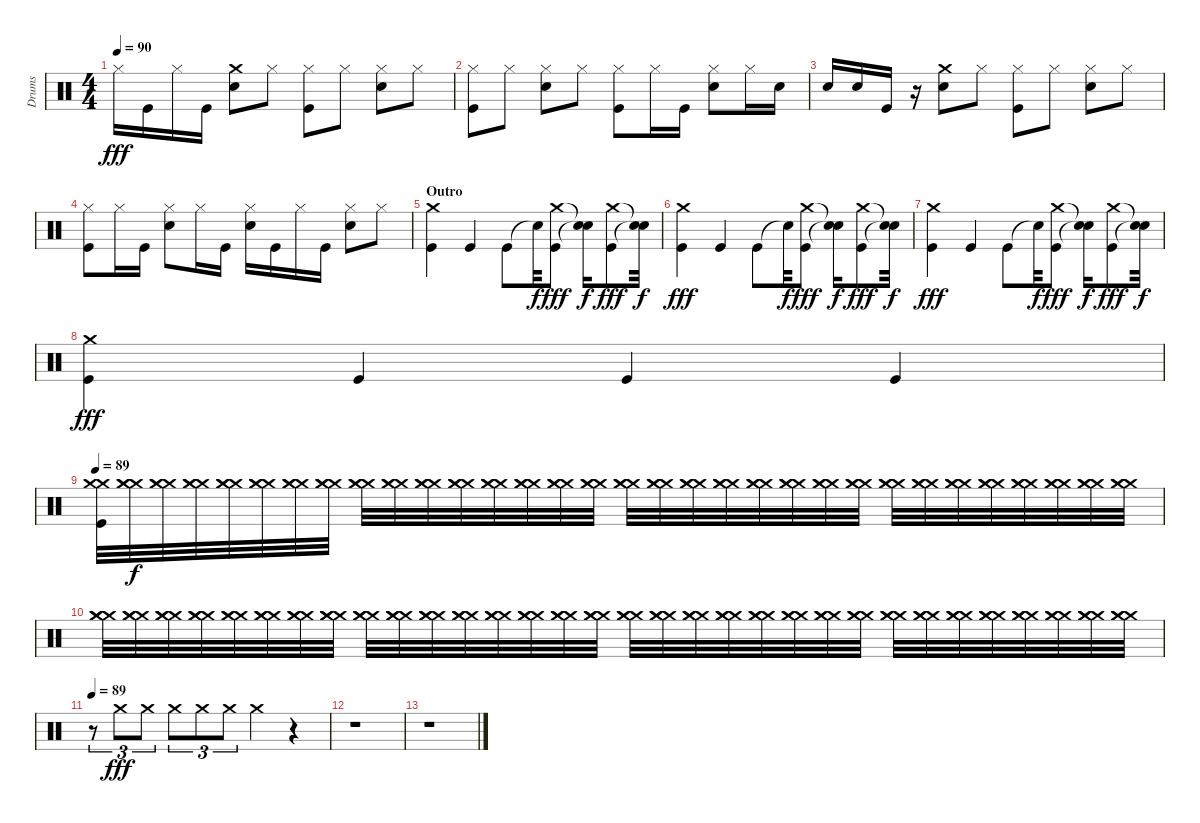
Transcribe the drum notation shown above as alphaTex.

\track ("Drums" "Drums") {instrument percussion}
\staff {score}
\articulation defaults
\ts (4 4)
\tempo 90
\clef neutral
\ks c "Hi-Hat (closed)".16{dy fff} "Kick (hit)".16 "Hi-Hat (closed)".16 "Kick (hit)".16
("Crash medium (hit)" "Snare (hit) 2").8 "Hi-Hat (closed)".8 ("Kick (hit)" "Hi-Hat (closed)").8 "Hi-Hat (closed)".8 ("Snare (hit) 2" "Hi-Hat (closed)").8 "Hi-Hat (closed)".8 |
("Hi-Hat (closed)" "Kick (hit)").8 "Hi-Hat (closed)".8 ("Snare (hit) 2" "Hi-Hat (closed)").8 "Hi-Hat (closed)".8 ("Hi-Hat (closed)" "Kick (hit)").8 "Hi-Hat (closed)".16 "Kick (hit)".16 ("Snare (hit) 2" "Hi-Hat (closed)").8 "Hi-Hat (closed)".16 "Snare (hit) 2".16 |
"Snare (hit) 2".16 "Snare (hit) 2".16 "Kick (hit)".16 r.16 ("Crash medium (hit)" "Snare (hit) 2").8 "Hi-Hat (closed)".8 ("Kick (hit)" "Hi-Hat (closed)").8 "Hi-Hat (closed)".8 ("Snare (hit) 2" "Hi-Hat (closed)").8 "Hi-Hat (closed)".8 |
("Kick (hit)" "Hi-Hat (closed)").8 "Hi-Hat (closed)".16 "Kick (hit)".16 ("Snare (hit) 2" "Hi-Hat (closed)").8 "Hi-Hat (closed)".16 "Kick (hit)".16 ("Snare (hit) 2" "Hi-Hat (closed)").16 "Kick (hit)".16 "Hi-Hat (closed)".16 "Kick (hit)".16 ("Snare (hit) 2" "Hi-Hat (closed)").8 "Hi-Hat (closed)".8 |
\section ("" "Outro")
("Kick (hit)" "Crash medium (hit)").4 "Kick (hit)".4 "Kick (hit)".8 "Snare (hit)"{t}.32{dy f} ("Kick (hit)" "Crash medium (hit)").8{dy fff} ("Snare (hit)"{t} "Snare (hit)"{t}).16{dy f} ("Kick (hit)" "Crash medium (hit)").8{dy fff} ("Snare (hit)"{t} "Snare (hit)"{t}).32{dy f} |
("Crash medium (hit)" "Kick (hit)").4{dy fff} "Kick (hit)".4 "Kick (hit)".8 "Snare (hit)"{t}.32{dy f} ("Kick (hit)" "Crash medium (hit)").8{dy fff} ("Snare (hit)"{t} "Snare (hit)"{t}).16{dy f} ("Kick (hit)" "Crash medium (hit)").8{dy fff} ("Snare (hit)"{t} "Snare (hit)"{t}).32{dy f} |
("Crash medium (hit)" "Kick (hit)").4{dy fff} "Kick (hit)".4 "Kick (hit)".8 "Snare (hit)"{t}.32{dy f} ("Crash medium (hit)" "Kick (hit)").8{dy fff} ("Snare (hit)"{t} "Snare (hit)"{t}).16{dy f} ("Crash medium (hit)" "Kick (hit)").8{dy fff} ("Snare (hit)"{t} "Snare (hit)"{t}).32{dy f} |
("Crash medium (hit)" "Kick (hit)").4{dy fff} "Kick (hit)".4 "Kick (hit)".4 "Kick (hit)".4 |
\tempo 89
("Kick (hit)" "Crash medium (hit)" "Crash medium (hit)").32 ("Crash medium (hit)" "Crash medium (hit)" "Crash medium (hit)").32{dy f} ("Crash medium (hit)" "Crash medium (hit)" "Crash medium (hit)").32 ("Crash medium (hit)" "Crash medium (hit)" "Crash medium (hit)").32 ("Crash medium (hit)" "Crash medium (hit)" "Crash medium (hit)").32 ("Crash medium (hit)" "Crash medium (hit)" "Crash medium (hit)").32 ("Crash medium (hit)" "Crash medium (hit)" "Crash medium (hit)").32 ("Crash medium (hit)" "Crash medium (hit)" "Crash medium (hit)").32 ("Crash medium (hit)" "Crash medium (hit)" "Crash medium (hit)").32 ("Crash medium (hit)" "Crash medium (hit)" "Crash medium (hit)").32 ("Crash medium (hit)" "Crash medium (hit)" "Crash medium (hit)").32 ("Crash medium (hit)" "Crash medium (hit)" "Crash medium (hit)").32 ("Crash medium (hit)" "Crash medium (hit)" "Crash medium (hit)").32 ("Crash medium (hit)" "Crash medium (hit)" "Crash medium (hit)").32 ("Crash medium (hit)" "Crash medium (hit)" "Crash medium (hit)").32 ("Crash medium (hit)" "Crash medium (hit)" "Crash medium (hit)").32 ("Crash medium (hit)" "Crash medium (hit)" "Crash medium (hit)").32 ("Crash medium (hit)" "Crash medium (hit)" "Crash medium (hit)").32 ("Crash medium (hit)" "Crash medium (hit)" "Crash medium (hit)").32 ("Crash medium (hit)" "Crash medium (hit)" "Crash medium (hit)").32 ("Crash medium (hit)" "Crash medium (hit)" "Crash medium (hit)").32 ("Crash medium (hit)" "Crash medium (hit)" "Crash medium (hit)").32 ("Crash medium (hit)" "Crash medium (hit)" "Crash medium (hit)").32 ("Crash medium (hit)" "Crash medium (hit)" "Crash medium (hit)").32 ("Crash medium (hit)" "Crash medium (hit)" "Crash medium (hit)").32 ("Crash medium (hit)" "Crash medium (hit)" "Crash medium (hit)").32 ("Crash medium (hit)" "Crash medium (hit)" "Crash medium (hit)").32 ("Crash medium (hit)" "Crash medium (hit)" "Crash medium (hit)").32 ("Crash medium (hit)" "Crash medium (hit)" "Crash medium (hit)").32 ("Crash medium (hit)" "Crash medium (hit)" "Crash medium (hit)").32 ("Crash medium (hit)" "Crash medium (hit)" "Crash medium (hit)").32 ("Crash medium (hit)" "Crash medium (hit)" "Crash medium (hit)").32 |
("Crash medium (hit)" "Crash medium (hit)" "Crash medium (hit)").32 ("Crash medium (hit)" "Crash medium (hit)" "Crash medium (hit)").32 ("Crash medium (hit)" "Crash medium (hit)" "Crash medium (hit)").32 ("Crash medium (hit)" "Crash medium (hit)" "Crash medium (hit)").32 ("Crash medium (hit)" "Crash medium (hit)" "Crash medium (hit)").32 ("Crash medium (hit)" "Crash medium (hit)" "Crash medium (hit)").32 ("Crash medium (hit)" "Crash medium (hit)" "Crash medium (hit)").32 ("Crash medium (hit)" "Crash medium (hit)" "Crash medium (hit)").32 ("Crash medium (hit)" "Crash medium (hit)" "Crash medium (hit)").32 ("Crash medium (hit)" "Crash medium (hit)" "Crash medium (hit)").32 ("Crash medium (hit)" "Crash medium (hit)" "Crash medium (hit)").32 ("Crash medium (hit)" "Crash medium (hit)" "Crash medium (hit)").32 ("Crash medium (hit)" "Crash medium (hit)" "Crash medium (hit)").32 ("Crash medium (hit)" "Crash medium (hit)" "Crash medium (hit)").32 ("Crash medium (hit)" "Crash medium (hit)" "Crash medium (hit)").32 ("Crash medium (hit)" "Crash medium (hit)" "Crash medium (hit)").32 ("Crash medium (hit)" "Crash medium (hit)" "Crash medium (hit)").32 ("Crash medium (hit)" "Crash medium (hit)" "Crash medium (hit)").32 ("Crash medium (hit)" "Crash medium (hit)" "Crash medium (hit)").32 ("Crash medium (hit)" "Crash medium (hit)" "Crash medium (hit)").32 ("Crash medium (hit)" "Crash medium (hit)" "Crash medium (hit)").32 ("Crash medium (hit)" "Crash medium (hit)" "Crash medium (hit)").32 ("Crash medium (hit)" "Crash medium (hit)" "Crash medium (hit)").32 ("Crash medium (hit)" "Crash medium (hit)" "Crash medium (hit)").32 ("Crash medium (hit)" "Crash medium (hit)" "Crash medium (hit)").32 ("Crash medium (hit)" "Crash medium (hit)" "Crash medium (hit)").32 ("Crash medium (hit)" "Crash medium (hit)" "Crash medium (hit)").32 ("Crash medium (hit)" "Crash medium (hit)" "Crash medium (hit)").32 ("Crash medium (hit)" "Crash medium (hit)" "Crash medium (hit)").32 ("Crash medium (hit)" "Crash medium (hit)" "Crash medium (hit)").32 ("Crash medium (hit)" "Crash medium (hit)" "Crash medium (hit)").32 ("Crash medium (hit)" "Crash medium (hit)" "Crash medium (hit)").32 |
\tempo 89
r.8{tu (3 2)} "Crash medium (hit)".8{tu (3 2) dy fff} "Crash medium (hit)".8{tu (3 2)} "Crash medium (hit)".8{tu (3 2)} "Crash medium (hit)".8{tu (3 2)} "Crash medium (hit)".8{tu (3 2)} "Crash medium (hit)".4 r.4 |
r.1 |
r.1
